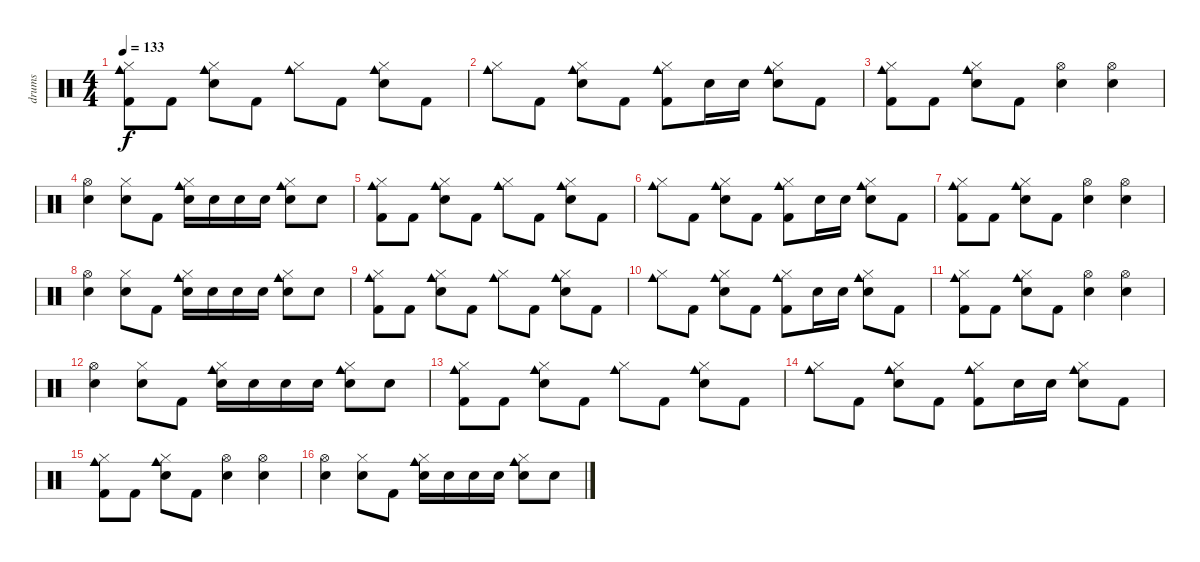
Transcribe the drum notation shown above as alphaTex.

\track ("drums" "drums") {instrument percussion}
\staff {score}
\articulation defaults
\ts (4 4)
\tempo 133
\clef neutral
\ks c
("Kick (hit) 2" "Cowbell medium (hit)" "Hi-Hat (closed)").8{dy f} "Kick (hit) 2".8 ("Electric Snare (hit)" "Cowbell medium (hit)" "Hi-Hat (closed)").8 "Kick (hit) 2".8 ("Cowbell medium (hit)" "Hi-Hat (closed)").8 "Kick (hit) 2".8 ("Electric Snare (hit)" "Cowbell medium (hit)" "Hi-Hat (closed)").8 "Kick (hit) 2".8 |
("Cowbell medium (hit)" "Hi-Hat (closed)").8 "Kick (hit) 2".8 ("Electric Snare (hit)" "Cowbell medium (hit)" "Hi-Hat (closed)").8 "Kick (hit) 2".8 ("Kick (hit) 2" "Cowbell medium (hit)" "Hi-Hat (closed)").8 "Electric Snare (hit)".16 "Electric Snare (hit)".16 ("Electric Snare (hit)" "Cowbell medium (hit)" "Hi-Hat (closed)").8 "Kick (hit) 2".8 |
("Kick (hit) 2" "Cowbell medium (hit)" "Hi-Hat (closed)").8 "Kick (hit) 2".8 ("Electric Snare (hit)" "Cowbell medium (hit)" "Hi-Hat (closed)").8 "Kick (hit) 2".8 ("Electric Snare (hit)" "Hi-Hat (open)").4 ("Electric Snare (hit)" "Hi-Hat (open)").4 |
("Electric Snare (hit)" "Hi-Hat (open)").4 ("Electric Snare (hit)" "Hi-Hat (closed)").8 "Kick (hit) 2".8 ("Electric Snare (hit)" "Cowbell medium (hit)" "Hi-Hat (closed)").16 "Electric Snare (hit)".16 "Electric Snare (hit)".16 "Electric Snare (hit)".16 ("Electric Snare (hit)" "Cowbell medium (hit)" "Hi-Hat (closed)").8 "Electric Snare (hit)".8 |
("Kick (hit) 2" "Cowbell medium (hit)" "Hi-Hat (closed)").8 "Kick (hit) 2".8 ("Electric Snare (hit)" "Cowbell medium (hit)" "Hi-Hat (closed)").8 "Kick (hit) 2".8 ("Cowbell medium (hit)" "Hi-Hat (closed)").8 "Kick (hit) 2".8 ("Electric Snare (hit)" "Cowbell medium (hit)" "Hi-Hat (closed)").8 "Kick (hit) 2".8 |
("Cowbell medium (hit)" "Hi-Hat (closed)").8 "Kick (hit) 2".8 ("Electric Snare (hit)" "Cowbell medium (hit)" "Hi-Hat (closed)").8 "Kick (hit) 2".8 ("Kick (hit) 2" "Cowbell medium (hit)" "Hi-Hat (closed)").8 "Electric Snare (hit)".16 "Electric Snare (hit)".16 ("Electric Snare (hit)" "Cowbell medium (hit)" "Hi-Hat (closed)").8 "Kick (hit) 2".8 |
("Kick (hit) 2" "Cowbell medium (hit)" "Hi-Hat (closed)").8 "Kick (hit) 2".8 ("Electric Snare (hit)" "Cowbell medium (hit)" "Hi-Hat (closed)").8 "Kick (hit) 2".8 ("Electric Snare (hit)" "Hi-Hat (open)").4 ("Electric Snare (hit)" "Hi-Hat (open)").4 |
("Electric Snare (hit)" "Hi-Hat (open)").4 ("Electric Snare (hit)" "Hi-Hat (closed)").8 "Kick (hit) 2".8 ("Electric Snare (hit)" "Cowbell medium (hit)" "Hi-Hat (closed)").16 "Electric Snare (hit)".16 "Electric Snare (hit)".16 "Electric Snare (hit)".16 ("Electric Snare (hit)" "Cowbell medium (hit)" "Hi-Hat (closed)").8 "Electric Snare (hit)".8 |
("Kick (hit) 2" "Cowbell medium (hit)" "Hi-Hat (closed)").8 "Kick (hit) 2".8 ("Electric Snare (hit)" "Cowbell medium (hit)" "Hi-Hat (closed)").8 "Kick (hit) 2".8 ("Cowbell medium (hit)" "Hi-Hat (closed)").8 "Kick (hit) 2".8 ("Electric Snare (hit)" "Cowbell medium (hit)" "Hi-Hat (closed)").8 "Kick (hit) 2".8 |
("Cowbell medium (hit)" "Hi-Hat (closed)").8 "Kick (hit) 2".8 ("Electric Snare (hit)" "Cowbell medium (hit)" "Hi-Hat (closed)").8 "Kick (hit) 2".8 ("Kick (hit) 2" "Cowbell medium (hit)" "Hi-Hat (closed)").8 "Electric Snare (hit)".16 "Electric Snare (hit)".16 ("Electric Snare (hit)" "Cowbell medium (hit)" "Hi-Hat (closed)").8 "Kick (hit) 2".8 |
("Kick (hit) 2" "Cowbell medium (hit)" "Hi-Hat (closed)").8 "Kick (hit) 2".8 ("Electric Snare (hit)" "Cowbell medium (hit)" "Hi-Hat (closed)").8 "Kick (hit) 2".8 ("Electric Snare (hit)" "Hi-Hat (open)").4 ("Electric Snare (hit)" "Hi-Hat (open)").4 |
("Electric Snare (hit)" "Hi-Hat (open)").4 ("Electric Snare (hit)" "Hi-Hat (closed)").8 "Kick (hit) 2".8 ("Electric Snare (hit)" "Cowbell medium (hit)" "Hi-Hat (closed)").16 "Electric Snare (hit)".16 "Electric Snare (hit)".16 "Electric Snare (hit)".16 ("Electric Snare (hit)" "Cowbell medium (hit)" "Hi-Hat (closed)").8 "Electric Snare (hit)".8 |
("Kick (hit) 2" "Cowbell medium (hit)" "Hi-Hat (closed)").8 "Kick (hit) 2".8 ("Electric Snare (hit)" "Cowbell medium (hit)" "Hi-Hat (closed)").8 "Kick (hit) 2".8 ("Cowbell medium (hit)" "Hi-Hat (closed)").8 "Kick (hit) 2".8 ("Electric Snare (hit)" "Cowbell medium (hit)" "Hi-Hat (closed)").8 "Kick (hit) 2".8 |
("Cowbell medium (hit)" "Hi-Hat (closed)").8 "Kick (hit) 2".8 ("Electric Snare (hit)" "Cowbell medium (hit)" "Hi-Hat (closed)").8 "Kick (hit) 2".8 ("Kick (hit) 2" "Cowbell medium (hit)" "Hi-Hat (closed)").8 "Electric Snare (hit)".16 "Electric Snare (hit)".16 ("Electric Snare (hit)" "Cowbell medium (hit)" "Hi-Hat (closed)").8 "Kick (hit) 2".8 |
("Kick (hit) 2" "Cowbell medium (hit)" "Hi-Hat (closed)").8 "Kick (hit) 2".8 ("Electric Snare (hit)" "Cowbell medium (hit)" "Hi-Hat (closed)").8 "Kick (hit) 2".8 ("Electric Snare (hit)" "Hi-Hat (open)").4 ("Electric Snare (hit)" "Hi-Hat (open)").4 |
("Electric Snare (hit)" "Hi-Hat (open)").4 ("Electric Snare (hit)" "Hi-Hat (closed)").8 "Kick (hit) 2".8 ("Electric Snare (hit)" "Cowbell medium (hit)" "Hi-Hat (closed)").16 "Electric Snare (hit)".16 "Electric Snare (hit)".16 "Electric Snare (hit)".16 ("Electric Snare (hit)" "Cowbell medium (hit)" "Hi-Hat (closed)").8 "Electric Snare (hit)".8
